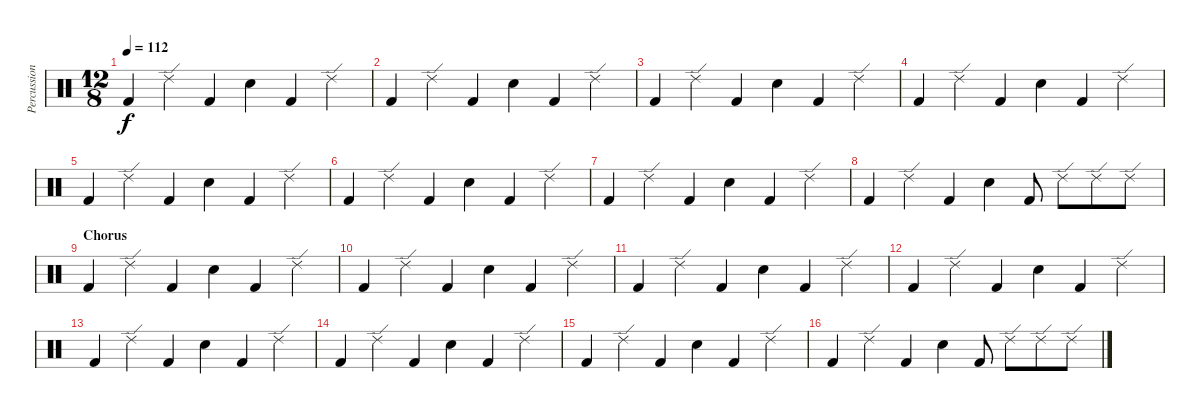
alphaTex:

\track ("Percussion" "Percussion") {instrument percussion}
\staff {score}
\articulation defaults
\ts (12 8)
\tempo 112
\clef neutral
\ks c "Kick (hit) 2".4{dy f} "Ride (edge) 2".4 "Kick (hit) 2".4 "Electric Snare (hit)".4 "Kick (hit) 2".4 "Ride (edge) 2".4
|
"Kick (hit) 2".4 "Ride (edge) 2".4 "Kick (hit) 2".4 "Electric Snare (hit)".4 "Kick (hit) 2".4 "Ride (edge) 2".4 |
"Kick (hit) 2".4 "Ride (edge) 2".4 "Kick (hit) 2".4 "Electric Snare (hit)".4 "Kick (hit) 2".4 "Ride (edge) 2".4 |
"Kick (hit) 2".4 "Ride (edge) 2".4 "Kick (hit) 2".4 "Electric Snare (hit)".4 "Kick (hit) 2".4 "Ride (edge) 2".4 |
"Kick (hit) 2".4 "Ride (edge) 2".4 "Kick (hit) 2".4 "Electric Snare (hit)".4 "Kick (hit) 2".4 "Ride (edge) 2".4 |
"Kick (hit) 2".4 "Ride (edge) 2".4 "Kick (hit) 2".4 "Electric Snare (hit)".4 "Kick (hit) 2".4 "Ride (edge) 2".4 |
"Kick (hit) 2".4 "Ride (edge) 2".4 "Kick (hit) 2".4 "Electric Snare (hit)".4 "Kick (hit) 2".4 "Ride (edge) 2".4 |
"Kick (hit) 2".4 "Ride (edge) 2".4 "Kick (hit) 2".4 "Electric Snare (hit)".4 "Kick (hit) 2".8 "Ride (edge) 2".8 "Ride (edge) 2".8 "Ride (edge) 2".8 |
\section ("" "Chorus")
"Kick (hit) 2".4 "Ride (edge) 2".4 "Kick (hit) 2".4 "Electric Snare (hit)".4 "Kick (hit) 2".4 "Ride (edge) 2".4 |
"Kick (hit) 2".4 "Ride (edge) 2".4 "Kick (hit) 2".4 "Electric Snare (hit)".4 "Kick (hit) 2".4 "Ride (edge) 2".4 |
"Kick (hit) 2".4 "Ride (edge) 2".4 "Kick (hit) 2".4 "Electric Snare (hit)".4 "Kick (hit) 2".4 "Ride (edge) 2".4 |
"Kick (hit) 2".4 "Ride (edge) 2".4 "Kick (hit) 2".4 "Electric Snare (hit)".4 "Kick (hit) 2".4 "Ride (edge) 2".4 |
"Kick (hit) 2".4 "Ride (edge) 2".4 "Kick (hit) 2".4 "Electric Snare (hit)".4 "Kick (hit) 2".4 "Ride (edge) 2".4 |
"Kick (hit) 2".4 "Ride (edge) 2".4 "Kick (hit) 2".4 "Electric Snare (hit)".4 "Kick (hit) 2".4 "Ride (edge) 2".4 |
"Kick (hit) 2".4 "Ride (edge) 2".4 "Kick (hit) 2".4 "Electric Snare (hit)".4 "Kick (hit) 2".4 "Ride (edge) 2".4 |
"Kick (hit) 2".4 "Ride (edge) 2".4 "Kick (hit) 2".4 "Electric Snare (hit)".4 "Kick (hit) 2".8 "Ride (edge) 2".8 "Ride (edge) 2".8 "Ride (edge) 2".8
